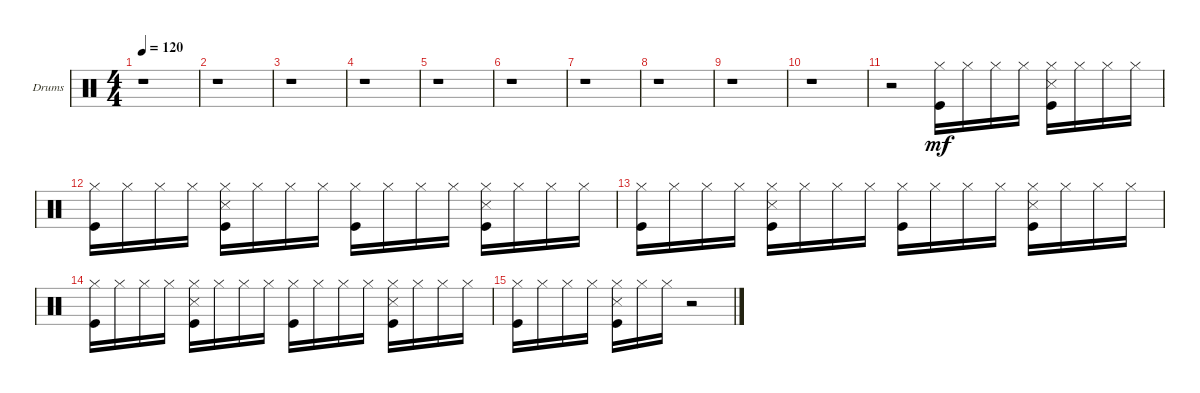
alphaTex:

\defaultSystemsLayout 4
\bracketExtendMode groupsimilarinstruments
\firstSystemTrackNameOrientation horizontal
\otherSystemsTrackNameOrientation horizontal
\track ("Drumkit" "Drums") {instrument percussion}
\staff {score}
\articulation defaults
\ts (4 4)
\tempo 120
\clef neutral
\scale
0.333333
\ks c
r.1{dy mf} |
\scale
0.333333 r.1 |
\scale
0.333333 r.1 |
\scale
0.333333 r.1 |
\scale
0.333333 r.1 |
\scale
0.333333 r.1 |
\scale
0.333333 r.1 |
\scale
0.333333 r.1 |
\scale
0.333333 r.1 |
\scale
0.333333 r.1 |
\scale
0.333333 r.2 ("Hi-Hat (closed)" "Kick (hit)").16 "Hi-Hat (closed)".16 "Hi-Hat (closed)".16 "Hi-Hat (closed)".16 ("Hi-Hat (closed)" "Snare (side stick) 3" "Kick (hit)").16 "Hi-Hat (closed)".16 "Hi-Hat (closed)".16 "Hi-Hat (closed)".16 |
\scale
0.333333 ("Hi-Hat (closed)" "Kick (hit)").16 "Hi-Hat (closed)".16 "Hi-Hat (closed)".16 "Hi-Hat (closed)".16 ("Hi-Hat (closed)" "Snare (side stick) 3" "Kick (hit)").16 "Hi-Hat (closed)".16 "Hi-Hat (closed)".16 "Hi-Hat (closed)".16 ("Hi-Hat (closed)" "Kick (hit)").16 "Hi-Hat (closed)".16 "Hi-Hat (closed)".16 "Hi-Hat (closed)".16 ("Hi-Hat (closed)" "Snare (side stick) 3" "Kick (hit)").16 "Hi-Hat (closed)".16 "Hi-Hat (closed)".16 "Hi-Hat (closed)".16 |
\scale
0.333333 ("Hi-Hat (closed)" "Kick (hit)").16 "Hi-Hat (closed)".16 "Hi-Hat (closed)".16 "Hi-Hat (closed)".16 ("Hi-Hat (closed)" "Snare (side stick) 3" "Kick (hit)").16 "Hi-Hat (closed)".16 "Hi-Hat (closed)".16 "Hi-Hat (closed)".16 ("Hi-Hat (closed)" "Kick (hit)").16 "Hi-Hat (closed)".16 "Hi-Hat (closed)".16 "Hi-Hat (closed)".16 ("Hi-Hat (closed)" "Snare (side stick) 3" "Kick (hit)").16 "Hi-Hat (closed)".16 "Hi-Hat (closed)".16 "Hi-Hat (closed)".16 |
\scale
0.333333 ("Hi-Hat (closed)" "Kick (hit)").16 "Hi-Hat (closed)".16 "Hi-Hat (closed)".16 "Hi-Hat (closed)".16 ("Hi-Hat (closed)" "Snare (side stick) 3" "Kick (hit)").16 "Hi-Hat (closed)".16 "Hi-Hat (closed)".16 "Hi-Hat (closed)".16 ("Hi-Hat (closed)" "Kick (hit)").16 "Hi-Hat (closed)".16 "Hi-Hat (closed)".16 "Hi-Hat (closed)".16 ("Hi-Hat (closed)" "Snare (side stick) 3" "Kick (hit)").16 "Hi-Hat (closed)".16 "Hi-Hat (closed)".16 "Hi-Hat (closed)".16 |
\scale
0.333333 ("Hi-Hat (closed)" "Kick (hit)").16 "Hi-Hat (closed)".16 "Hi-Hat (closed)".16 "Hi-Hat (closed)".16 ("Hi-Hat (closed)" "Snare (side stick) 3" "Kick (hit)").16 "Hi-Hat (closed)".16 "Hi-Hat (closed)".16 r.2 |
\scale
0.333333
